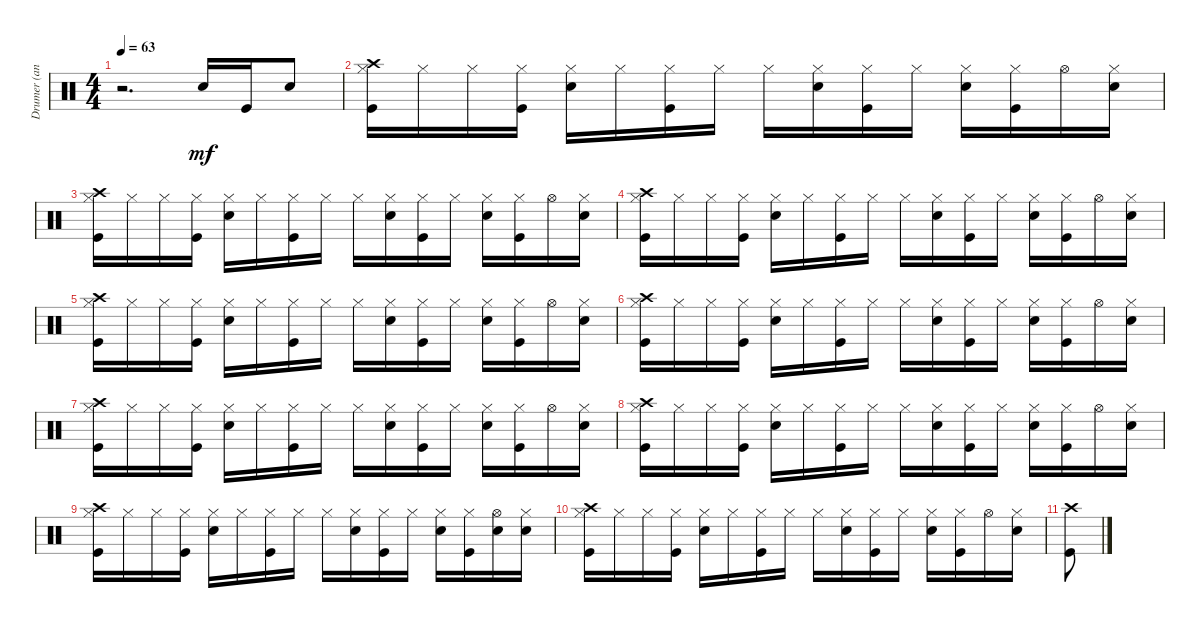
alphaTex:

\track ("Drumer (ananbakeri.blogspot.com)" "Drumer (an") {instrument percussion}
\staff {score}
\articulation defaults
\ts (4 4)
\tempo 63
\clef neutral
\ks c
r.2{d dy mf} "Snare (hit) 2".16 "Kick (hit)".16 "Snare (hit) 2".8 |
("Hi-Hat (closed)" "Kick (hit)" "Crash high (hit)").16 "Hi-Hat (closed)".16 "Hi-Hat (closed)".16 ("Hi-Hat (closed)" "Kick (hit)").16 ("Hi-Hat (closed)" "Snare (hit) 2").16 "Hi-Hat (closed)".16 ("Hi-Hat (closed)" "Kick (hit)").16 "Hi-Hat (closed)".16 "Hi-Hat (closed)".16 ("Hi-Hat (closed)" "Snare (hit) 2").16 ("Hi-Hat (closed)" "Kick (hit)").16 "Hi-Hat (closed)".16 ("Hi-Hat (closed)" "Snare (hit) 2").16 ("Hi-Hat (closed)" "Kick (hit)").16 "Hi-Hat (open)".16 ("Hi-Hat (closed)" "Snare (hit) 2").16 |
("Hi-Hat (closed)" "Kick (hit)" "Crash high (hit)").16 "Hi-Hat (closed)".16 "Hi-Hat (closed)".16 ("Hi-Hat (closed)" "Kick (hit)").16 ("Hi-Hat (closed)" "Snare (hit) 2").16 "Hi-Hat (closed)".16 ("Hi-Hat (closed)" "Kick (hit)").16 "Hi-Hat (closed)".16 "Hi-Hat (closed)".16 ("Hi-Hat (closed)" "Snare (hit) 2").16 ("Hi-Hat (closed)" "Kick (hit)").16 "Hi-Hat (closed)".16 ("Hi-Hat (closed)" "Snare (hit) 2").16 ("Hi-Hat (closed)" "Kick (hit)").16 "Hi-Hat (open)".16 ("Hi-Hat (closed)" "Snare (hit) 2").16 |
("Hi-Hat (closed)" "Kick (hit)" "Crash high (hit)").16 "Hi-Hat (closed)".16 "Hi-Hat (closed)".16 ("Hi-Hat (closed)" "Kick (hit)").16 ("Hi-Hat (closed)" "Snare (hit) 2").16 "Hi-Hat (closed)".16 ("Hi-Hat (closed)" "Kick (hit)").16 "Hi-Hat (closed)".16 "Hi-Hat (closed)".16 ("Hi-Hat (closed)" "Snare (hit) 2").16 ("Hi-Hat (closed)" "Kick (hit)").16 "Hi-Hat (closed)".16 ("Hi-Hat (closed)" "Snare (hit) 2").16 ("Hi-Hat (closed)" "Kick (hit)").16 "Hi-Hat (open)".16 ("Hi-Hat (closed)" "Snare (hit) 2").16 |
("Hi-Hat (closed)" "Kick (hit)" "Crash high (hit)").16 "Hi-Hat (closed)".16 "Hi-Hat (closed)".16 ("Hi-Hat (closed)" "Kick (hit)").16 ("Hi-Hat (closed)" "Snare (hit) 2").16 "Hi-Hat (closed)".16 ("Hi-Hat (closed)" "Kick (hit)").16 "Hi-Hat (closed)".16 "Hi-Hat (closed)".16 ("Hi-Hat (closed)" "Snare (hit) 2").16 ("Hi-Hat (closed)" "Kick (hit)").16 "Hi-Hat (closed)".16 ("Hi-Hat (closed)" "Snare (hit) 2").16 ("Hi-Hat (closed)" "Kick (hit)").16 "Hi-Hat (open)".16 ("Hi-Hat (closed)" "Snare (hit) 2").16 |
("Hi-Hat (closed)" "Kick (hit)" "Crash high (hit)").16 "Hi-Hat (closed)".16 "Hi-Hat (closed)".16 ("Hi-Hat (closed)" "Kick (hit)").16 ("Hi-Hat (closed)" "Snare (hit) 2").16 "Hi-Hat (closed)".16 ("Hi-Hat (closed)" "Kick (hit)").16 "Hi-Hat (closed)".16 "Hi-Hat (closed)".16 ("Hi-Hat (closed)" "Snare (hit) 2").16 ("Hi-Hat (closed)" "Kick (hit)").16 "Hi-Hat (closed)".16 ("Hi-Hat (closed)" "Snare (hit) 2").16 ("Hi-Hat (closed)" "Kick (hit)").16 "Hi-Hat (open)".16 ("Hi-Hat (closed)" "Snare (hit) 2").16 |
("Hi-Hat (closed)" "Kick (hit)" "Crash high (hit)").16 "Hi-Hat (closed)".16 "Hi-Hat (closed)".16 ("Hi-Hat (closed)" "Kick (hit)").16 ("Hi-Hat (closed)" "Snare (hit) 2").16 "Hi-Hat (closed)".16 ("Hi-Hat (closed)" "Kick (hit)").16 "Hi-Hat (closed)".16 "Hi-Hat (closed)".16 ("Hi-Hat (closed)" "Snare (hit) 2").16 ("Hi-Hat (closed)" "Kick (hit)").16 "Hi-Hat (closed)".16 ("Hi-Hat (closed)" "Snare (hit) 2").16 ("Hi-Hat (closed)" "Kick (hit)").16 "Hi-Hat (open)".16 ("Hi-Hat (closed)" "Snare (hit) 2").16 |
("Hi-Hat (closed)" "Kick (hit)" "Crash high (hit)").16 "Hi-Hat (closed)".16 "Hi-Hat (closed)".16 ("Hi-Hat (closed)" "Kick (hit)").16 ("Hi-Hat (closed)" "Snare (hit) 2").16 "Hi-Hat (closed)".16 ("Hi-Hat (closed)" "Kick (hit)").16 "Hi-Hat (closed)".16 "Hi-Hat (closed)".16 ("Hi-Hat (closed)" "Snare (hit) 2").16 ("Hi-Hat (closed)" "Kick (hit)").16 "Hi-Hat (closed)".16 ("Hi-Hat (closed)" "Snare (hit) 2").16 ("Hi-Hat (closed)" "Kick (hit)").16 "Hi-Hat (open)".16 ("Hi-Hat (closed)" "Snare (hit) 2").16 |
("Hi-Hat (closed)" "Kick (hit)" "Crash high (hit)").16 "Hi-Hat (closed)".16 "Hi-Hat (closed)".16 ("Hi-Hat (closed)" "Kick (hit)").16 ("Hi-Hat (closed)" "Snare (hit) 2").16 "Hi-Hat (closed)".16 ("Hi-Hat (closed)" "Kick (hit)").16 "Hi-Hat (closed)".16 "Hi-Hat (closed)".16 ("Hi-Hat (closed)" "Snare (hit) 2").16 ("Hi-Hat (closed)" "Kick (hit)").16 "Hi-Hat (closed)".16 ("Hi-Hat (closed)" "Snare (hit) 2").16 ("Hi-Hat (closed)" "Kick (hit)").16 ("Hi-Hat (open)" "Snare (hit) 2").16 ("Hi-Hat (closed)" "Snare (hit) 2").16 |
("Hi-Hat (closed)" "Kick (hit)" "Crash high (hit)").16 "Hi-Hat (closed)".16 "Hi-Hat (closed)".16 ("Hi-Hat (closed)" "Kick (hit)").16 ("Hi-Hat (closed)" "Snare (hit) 2").16 "Hi-Hat (closed)".16 ("Hi-Hat (closed)" "Kick (hit)").16 "Hi-Hat (closed)".16 "Hi-Hat (closed)".16 ("Hi-Hat (closed)" "Snare (hit) 2").16 ("Hi-Hat (closed)" "Kick (hit)").16 "Hi-Hat (closed)".16 ("Hi-Hat (closed)" "Snare (hit) 2").16 ("Hi-Hat (closed)" "Kick (hit)").16 "Hi-Hat (open)".16 ("Hi-Hat (closed)" "Snare (hit) 2").16 |
("Crash high (hit)" "Kick (hit)").8
